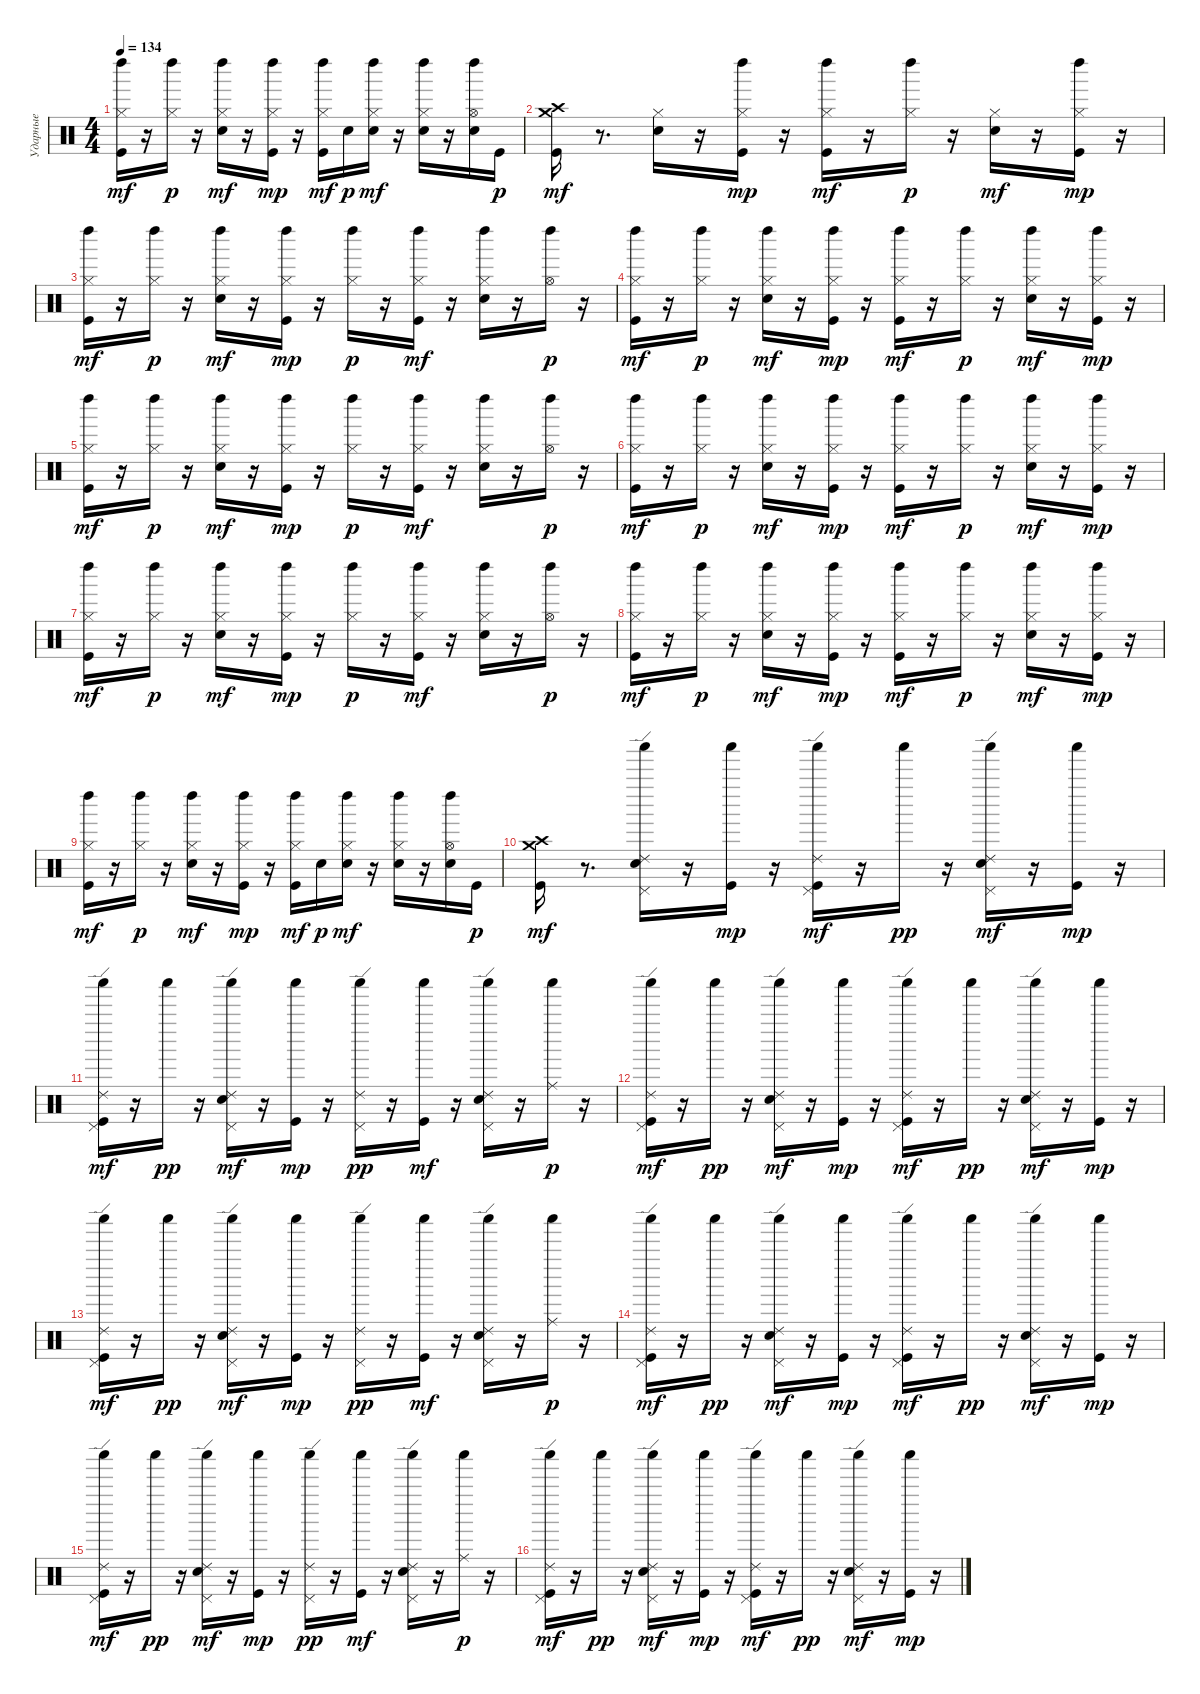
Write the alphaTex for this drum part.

\track ("Ударные" "Ударные") {instrument percussion}
\staff {score}
\articulation defaults
\ts (4 4)
\tempo 134
\clef neutral
\ks c
("Hi-Hat (closed)" "Left Maraca (hit)" "Kick (hit)").16{dy mf} r.16 ("Hi-Hat (closed)" "Left Maraca (hit)").16{dy p} r.16 ("Hi-Hat (closed)" "Left Maraca (hit)" "Snare (hit) 2").16{dy mf} r.16 ("Hi-Hat (closed)" "Left Maraca (hit)" "Kick (hit)").16{dy mp} r.16 ("Hi-Hat (closed)" "Left Maraca (hit)" "Kick (hit)").16{dy mf} "Snare (hit) 2".16{dy p} ("Hi-Hat (closed)" "Left Maraca (hit)" "Snare (hit) 2").16{dy mf} r.16 ("Hi-Hat (closed)" "Left Maraca (hit)" "Snare (hit) 2").16 r.16 ("Hi-Hat (open)" "Left Maraca (hit)" "Snare (hit) 2").16 "Kick (hit)".16{dy p} |
("Crash medium (hit)" "Crash high (hit)" "Kick (hit)").16{dy mf} r.8{d} ("Hi-Hat (closed)" "Snare (hit) 2").16 r.16 ("Hi-Hat (closed)" "Left Maraca (hit)" "Kick (hit)").16{dy mp} r.16 ("Hi-Hat (closed)" "Left Maraca (hit)" "Kick (hit)").16{dy mf} r.16 ("Hi-Hat (closed)" "Left Maraca (hit)").16{dy p} r.16 ("Hi-Hat (closed)" "Snare (hit) 2").16{dy mf} r.16 ("Hi-Hat (closed)" "Left Maraca (hit)" "Kick (hit)").16{dy mp} r.16 |
("Hi-Hat (closed)" "Left Maraca (hit)" "Kick (hit)").16{dy mf} r.16 ("Hi-Hat (closed)" "Left Maraca (hit)").16{dy p} r.16 ("Hi-Hat (closed)" "Left Maraca (hit)" "Snare (hit) 2").16{dy mf} r.16 ("Hi-Hat (closed)" "Left Maraca (hit)" "Kick (hit)").16{dy mp} r.16 ("Hi-Hat (closed)" "Left Maraca (hit)").16{dy p} r.16 ("Hi-Hat (closed)" "Left Maraca (hit)" "Kick (hit)").16{dy mf} r.16 ("Hi-Hat (closed)" "Left Maraca (hit)" "Snare (hit) 2").16 r.16 ("Hi-Hat (open)" "Left Maraca (hit)").16{dy p} r.16 |
("Hi-Hat (closed)" "Left Maraca (hit)" "Kick (hit)").16{dy mf} r.16 ("Hi-Hat (closed)" "Left Maraca (hit)").16{dy p} r.16 ("Hi-Hat (closed)" "Left Maraca (hit)" "Snare (hit) 2").16{dy mf} r.16 ("Hi-Hat (closed)" "Left Maraca (hit)" "Kick (hit)").16{dy mp} r.16 ("Hi-Hat (closed)" "Left Maraca (hit)" "Kick (hit)").16{dy mf} r.16 ("Hi-Hat (closed)" "Left Maraca (hit)").16{dy p} r.16 ("Hi-Hat (closed)" "Left Maraca (hit)" "Snare (hit) 2").16{dy mf} r.16 ("Hi-Hat (closed)" "Left Maraca (hit)" "Kick (hit)").16{dy mp} r.16 |
("Hi-Hat (closed)" "Left Maraca (hit)" "Kick (hit)").16{dy mf} r.16 ("Hi-Hat (closed)" "Left Maraca (hit)").16{dy p} r.16 ("Hi-Hat (closed)" "Left Maraca (hit)" "Snare (hit) 2").16{dy mf} r.16 ("Hi-Hat (closed)" "Left Maraca (hit)" "Kick (hit)").16{dy mp} r.16 ("Hi-Hat (closed)" "Left Maraca (hit)").16{dy p} r.16 ("Hi-Hat (closed)" "Left Maraca (hit)" "Kick (hit)").16{dy mf} r.16 ("Hi-Hat (closed)" "Left Maraca (hit)" "Snare (hit) 2").16 r.16 ("Hi-Hat (open)" "Left Maraca (hit)").16{dy p} r.16 |
("Hi-Hat (closed)" "Left Maraca (hit)" "Kick (hit)").16{dy mf} r.16 ("Hi-Hat (closed)" "Left Maraca (hit)").16{dy p} r.16 ("Hi-Hat (closed)" "Left Maraca (hit)" "Snare (hit) 2").16{dy mf} r.16 ("Hi-Hat (closed)" "Left Maraca (hit)" "Kick (hit)").16{dy mp} r.16 ("Hi-Hat (closed)" "Left Maraca (hit)" "Kick (hit)").16{dy mf} r.16 ("Hi-Hat (closed)" "Left Maraca (hit)").16{dy p} r.16 ("Hi-Hat (closed)" "Left Maraca (hit)" "Snare (hit) 2").16{dy mf} r.16 ("Hi-Hat (closed)" "Left Maraca (hit)" "Kick (hit)").16{dy mp} r.16 |
("Hi-Hat (closed)" "Left Maraca (hit)" "Kick (hit)").16{dy mf} r.16 ("Hi-Hat (closed)" "Left Maraca (hit)").16{dy p} r.16 ("Hi-Hat (closed)" "Left Maraca (hit)" "Snare (hit) 2").16{dy mf} r.16 ("Hi-Hat (closed)" "Left Maraca (hit)" "Kick (hit)").16{dy mp} r.16 ("Hi-Hat (closed)" "Left Maraca (hit)").16{dy p} r.16 ("Hi-Hat (closed)" "Left Maraca (hit)" "Kick (hit)").16{dy mf} r.16 ("Hi-Hat (closed)" "Left Maraca (hit)" "Snare (hit) 2").16 r.16 ("Hi-Hat (open)" "Left Maraca (hit)").16{dy p} r.16 |
("Hi-Hat (closed)" "Left Maraca (hit)" "Kick (hit)").16{dy mf} r.16 ("Hi-Hat (closed)" "Left Maraca (hit)").16{dy p} r.16 ("Hi-Hat (closed)" "Left Maraca (hit)" "Snare (hit) 2").16{dy mf} r.16 ("Hi-Hat (closed)" "Left Maraca (hit)" "Kick (hit)").16{dy mp} r.16 ("Hi-Hat (closed)" "Left Maraca (hit)" "Kick (hit)").16{dy mf} r.16 ("Hi-Hat (closed)" "Left Maraca (hit)").16{dy p} r.16 ("Hi-Hat (closed)" "Left Maraca (hit)" "Snare (hit) 2").16{dy mf} r.16 ("Hi-Hat (closed)" "Left Maraca (hit)" "Kick (hit)").16{dy mp} r.16 |
("Hi-Hat (closed)" "Left Maraca (hit)" "Kick (hit)").16{dy mf} r.16 ("Hi-Hat (closed)" "Left Maraca (hit)").16{dy p} r.16 ("Hi-Hat (closed)" "Left Maraca (hit)" "Snare (hit) 2").16{dy mf} r.16 ("Hi-Hat (closed)" "Left Maraca (hit)" "Kick (hit)").16{dy mp} r.16 ("Hi-Hat (closed)" "Left Maraca (hit)" "Kick (hit)").16{dy mf} "Snare (hit) 2".16{dy p} ("Hi-Hat (closed)" "Left Maraca (hit)" "Snare (hit) 2").16{dy mf} r.16 ("Hi-Hat (closed)" "Left Maraca (hit)" "Snare (hit) 2").16 r.16 ("Hi-Hat (open)" "Left Maraca (hit)" "Snare (hit) 2").16 "Kick (hit)".16{dy p} |
("Crash medium (hit)" "Crash high (hit)" "Kick (hit)").16{dy mf} r.8{d} ("Pedal Hi-Hat (hit)" "Ride (edge) 2" "Shaker (hit)" "Snare (hit) 2").16 r.16 ("Shaker (hit)" "Kick (hit)").16{dy mp} r.16 ("Pedal Hi-Hat (hit)" "Ride (edge) 2" "Shaker (hit)" "Kick (hit)").16{dy mf} r.16 "Shaker (hit)".16{dy pp} r.16 ("Pedal Hi-Hat (hit)" "Ride (edge) 2" "Shaker (hit)" "Snare (hit) 2").16{dy mf} r.16 ("Shaker (hit)" "Kick (hit)").16{dy mp} r.16 |
("Pedal Hi-Hat (hit)" "Ride (edge) 2" "Shaker (hit)" "Kick (hit)").16{dy mf} r.16 "Shaker (hit)".16{dy pp} r.16 ("Pedal Hi-Hat (hit)" "Ride (edge) 2" "Shaker (hit)" "Snare (hit) 2").16{dy mf} r.16 ("Shaker (hit)" "Kick (hit)").16{dy mp} r.16 ("Pedal Hi-Hat (hit)" "Ride (edge) 2" "Shaker (hit)").16{dy pp} r.16 ("Shaker (hit)" "Kick (hit)").16{dy mf} r.16 ("Pedal Hi-Hat (hit)" "Ride (edge) 2" "Shaker (hit)" "Snare (hit) 2").16 r.16 ("Shaker (hit)" "Ride (middle)").16{dy p} r.16 |
("Pedal Hi-Hat (hit)" "Ride (edge) 2" "Shaker (hit)" "Kick (hit)").16{dy mf} r.16 "Shaker (hit)".16{dy pp} r.16 ("Pedal Hi-Hat (hit)" "Ride (edge) 2" "Shaker (hit)" "Snare (hit) 2").16{dy mf} r.16 ("Shaker (hit)" "Kick (hit)").16{dy mp} r.16 ("Pedal Hi-Hat (hit)" "Ride (edge) 2" "Shaker (hit)" "Kick (hit)").16{dy mf} r.16 "Shaker (hit)".16{dy pp} r.16 ("Pedal Hi-Hat (hit)" "Ride (edge) 2" "Shaker (hit)" "Snare (hit) 2").16{dy mf} r.16 ("Shaker (hit)" "Kick (hit)").16{dy mp} r.16 |
("Pedal Hi-Hat (hit)" "Ride (edge) 2" "Shaker (hit)" "Kick (hit)").16{dy mf} r.16 "Shaker (hit)".16{dy pp} r.16 ("Pedal Hi-Hat (hit)" "Ride (edge) 2" "Shaker (hit)" "Snare (hit) 2").16{dy mf} r.16 ("Shaker (hit)" "Kick (hit)").16{dy mp} r.16 ("Pedal Hi-Hat (hit)" "Ride (edge) 2" "Shaker (hit)").16{dy pp} r.16 ("Shaker (hit)" "Kick (hit)").16{dy mf} r.16 ("Pedal Hi-Hat (hit)" "Ride (edge) 2" "Shaker (hit)" "Snare (hit) 2").16 r.16 ("Shaker (hit)" "Ride (middle)").16{dy p} r.16 |
("Pedal Hi-Hat (hit)" "Ride (edge) 2" "Shaker (hit)" "Kick (hit)").16{dy mf} r.16 "Shaker (hit)".16{dy pp} r.16 ("Pedal Hi-Hat (hit)" "Ride (edge) 2" "Shaker (hit)" "Snare (hit) 2").16{dy mf} r.16 ("Shaker (hit)" "Kick (hit)").16{dy mp} r.16 ("Pedal Hi-Hat (hit)" "Ride (edge) 2" "Shaker (hit)" "Kick (hit)").16{dy mf} r.16 "Shaker (hit)".16{dy pp} r.16 ("Pedal Hi-Hat (hit)" "Ride (edge) 2" "Shaker (hit)" "Snare (hit) 2").16{dy mf} r.16 ("Shaker (hit)" "Kick (hit)").16{dy mp} r.16 |
("Pedal Hi-Hat (hit)" "Ride (edge) 2" "Shaker (hit)" "Kick (hit)").16{dy mf} r.16 "Shaker (hit)".16{dy pp} r.16 ("Pedal Hi-Hat (hit)" "Ride (edge) 2" "Shaker (hit)" "Snare (hit) 2").16{dy mf} r.16 ("Shaker (hit)" "Kick (hit)").16{dy mp} r.16 ("Pedal Hi-Hat (hit)" "Ride (edge) 2" "Shaker (hit)").16{dy pp} r.16 ("Shaker (hit)" "Kick (hit)").16{dy mf} r.16 ("Pedal Hi-Hat (hit)" "Ride (edge) 2" "Shaker (hit)" "Snare (hit) 2").16 r.16 ("Shaker (hit)" "Ride (middle)").16{dy p} r.16 |
("Pedal Hi-Hat (hit)" "Ride (edge) 2" "Shaker (hit)" "Kick (hit)").16{dy mf} r.16 "Shaker (hit)".16{dy pp} r.16 ("Pedal Hi-Hat (hit)" "Ride (edge) 2" "Shaker (hit)" "Snare (hit) 2").16{dy mf} r.16 ("Shaker (hit)" "Kick (hit)").16{dy mp} r.16 ("Pedal Hi-Hat (hit)" "Ride (edge) 2" "Shaker (hit)" "Kick (hit)").16{dy mf} r.16 "Shaker (hit)".16{dy pp} r.16 ("Pedal Hi-Hat (hit)" "Ride (edge) 2" "Shaker (hit)" "Snare (hit) 2").16{dy mf} r.16 ("Shaker (hit)" "Kick (hit)").16{dy mp} r.16
